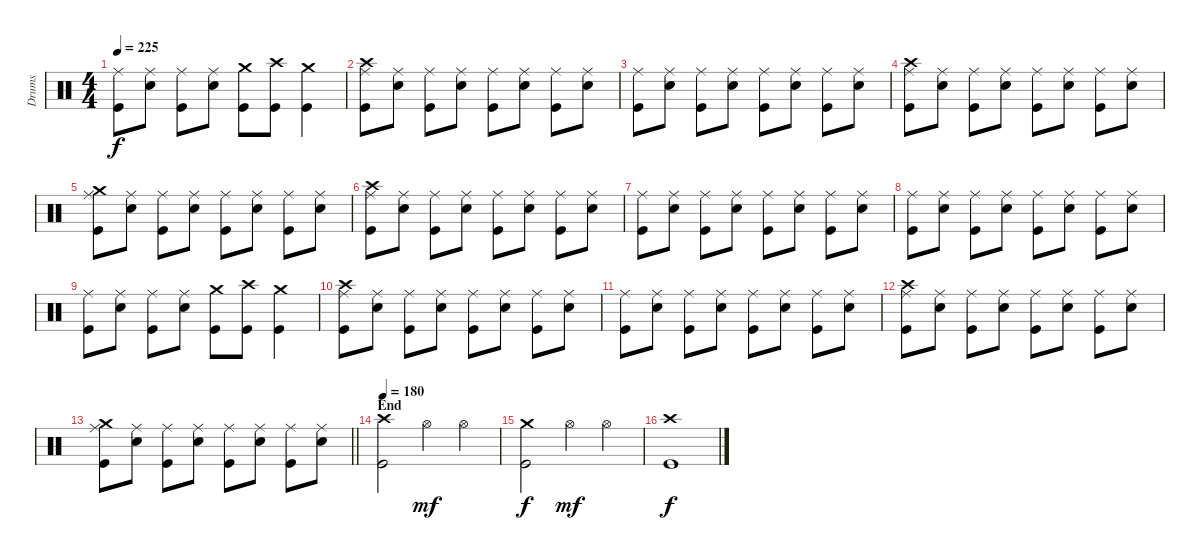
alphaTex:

\track ("Drums" "Drums") {instrument percussion}
\staff {score}
\articulation defaults
\ts (4 4)
\tempo 225
\clef neutral
\ks c
("Ride (middle)" "Kick (hit)").8{dy f} ("Ride (middle)" "Electric Snare (hit)").8 ("Ride (middle)" "Kick (hit)").8 ("Ride (middle)" "Electric Snare (hit)").8 ("Crash medium (hit)" "Kick (hit)").8 ("Crash high (hit)" "Kick (hit)").8 ("Crash medium (hit)" "Kick (hit)").4 |
("Crash high (hit)" "Ride (middle)" "Kick (hit)").8 ("Ride (middle)" "Electric Snare (hit)").8 ("Ride (middle)" "Kick (hit)").8 ("Ride (middle)" "Electric Snare (hit)").8 ("Ride (middle)" "Kick (hit)").8 ("Ride (middle)" "Electric Snare (hit)").8 ("Ride (middle)" "Kick (hit)").8 ("Ride (middle)" "Electric Snare (hit)").8 |
("Ride (middle)" "Kick (hit)").8 ("Ride (middle)" "Electric Snare (hit)").8 ("Ride (middle)" "Kick (hit)").8 ("Ride (middle)" "Electric Snare (hit)").8 ("Ride (middle)" "Kick (hit)").8 ("Ride (middle)" "Electric Snare (hit)").8 ("Ride (middle)" "Kick (hit)").8 ("Ride (middle)" "Electric Snare (hit)").8 |
("Crash high (hit)" "Ride (middle)" "Kick (hit)").8 ("Ride (middle)" "Electric Snare (hit)").8 ("Ride (middle)" "Kick (hit)").8 ("Ride (middle)" "Electric Snare (hit)").8 ("Ride (middle)" "Kick (hit)").8 ("Ride (middle)" "Electric Snare (hit)").8 ("Ride (middle)" "Kick (hit)").8 ("Ride (middle)" "Electric Snare (hit)").8 |
("Crash medium (hit)" "Ride (middle)" "Kick (hit)").8 ("Ride (middle)" "Electric Snare (hit)").8 ("Ride (middle)" "Kick (hit)").8 ("Ride (middle)" "Electric Snare (hit)").8 ("Ride (middle)" "Kick (hit)").8 ("Ride (middle)" "Electric Snare (hit)").8 ("Ride (middle)" "Kick (hit)").8 ("Ride (middle)" "Electric Snare (hit)").8 |
("Crash high (hit)" "Ride (middle)" "Kick (hit)").8 ("Ride (middle)" "Electric Snare (hit)").8 ("Ride (middle)" "Kick (hit)").8 ("Ride (middle)" "Electric Snare (hit)").8 ("Ride (middle)" "Kick (hit)").8 ("Ride (middle)" "Electric Snare (hit)").8 ("Ride (middle)" "Kick (hit)").8 ("Ride (middle)" "Electric Snare (hit)").8 |
("Ride (middle)" "Kick (hit)").8 ("Ride (middle)" "Electric Snare (hit)").8 ("Ride (middle)" "Kick (hit)").8 ("Ride (middle)" "Electric Snare (hit)").8 ("Ride (middle)" "Kick (hit)").8 ("Ride (middle)" "Electric Snare (hit)").8 ("Ride (middle)" "Kick (hit)").8 ("Ride (middle)" "Electric Snare (hit)").8 |
("Ride (middle)" "Kick (hit)").8 ("Ride (middle)" "Electric Snare (hit)").8 ("Ride (middle)" "Kick (hit)").8 ("Ride (middle)" "Electric Snare (hit)").8 ("Ride (middle)" "Kick (hit)").8 ("Ride (middle)" "Electric Snare (hit)").8 ("Ride (middle)" "Kick (hit)").8 ("Ride (middle)" "Electric Snare (hit)").8 |
("Ride (middle)" "Kick (hit)").8 ("Ride (middle)" "Electric Snare (hit)").8 ("Ride (middle)" "Kick (hit)").8 ("Ride (middle)" "Electric Snare (hit)").8 ("Crash medium (hit)" "Kick (hit)").8 ("Crash high (hit)" "Kick (hit)").8 ("Crash medium (hit)" "Kick (hit)").4 |
("Crash high (hit)" "Ride (middle)" "Kick (hit)").8 ("Ride (middle)" "Electric Snare (hit)").8 ("Ride (middle)" "Kick (hit)").8 ("Ride (middle)" "Electric Snare (hit)").8 ("Ride (middle)" "Kick (hit)").8 ("Ride (middle)" "Electric Snare (hit)").8 ("Ride (middle)" "Kick (hit)").8 ("Ride (middle)" "Electric Snare (hit)").8 |
("Ride (middle)" "Kick (hit)").8 ("Ride (middle)" "Electric Snare (hit)").8 ("Ride (middle)" "Kick (hit)").8 ("Ride (middle)" "Electric Snare (hit)").8 ("Ride (middle)" "Kick (hit)").8 ("Ride (middle)" "Electric Snare (hit)").8 ("Ride (middle)" "Kick (hit)").8 ("Ride (middle)" "Electric Snare (hit)").8 |
("Crash high (hit)" "Ride (middle)" "Kick (hit)").8 ("Ride (middle)" "Electric Snare (hit)").8 ("Ride (middle)" "Kick (hit)").8 ("Ride (middle)" "Electric Snare (hit)").8 ("Ride (middle)" "Kick (hit)").8 ("Ride (middle)" "Electric Snare (hit)").8 ("Ride (middle)" "Kick (hit)").8 ("Ride (middle)" "Electric Snare (hit)").8 |
\barLineRight lightlight
("Crash medium (hit)" "Ride (middle)" "Kick (hit)").8 ("Ride (middle)" "Electric Snare (hit)").8 ("Ride (middle)" "Kick (hit)").8 ("Ride (middle)" "Electric Snare (hit)").8 ("Ride (middle)" "Kick (hit)").8 ("Ride (middle)" "Electric Snare (hit)").8 ("Ride (middle)" "Kick (hit)").8 ("Ride (middle)" "Electric Snare (hit)").8 |
\section ("" "End")
\tempo 180
("Crash high (hit)" "Kick (hit)").2 "Hi-Hat (open)".4{dy mf} "Hi-Hat (open)".4 |
("Crash medium (hit)" "Kick (hit)").2{dy f} "Hi-Hat (open)".4{dy mf} "Hi-Hat (open)".4 |
("Crash high (hit)" "Kick (hit)").1{dy f}
